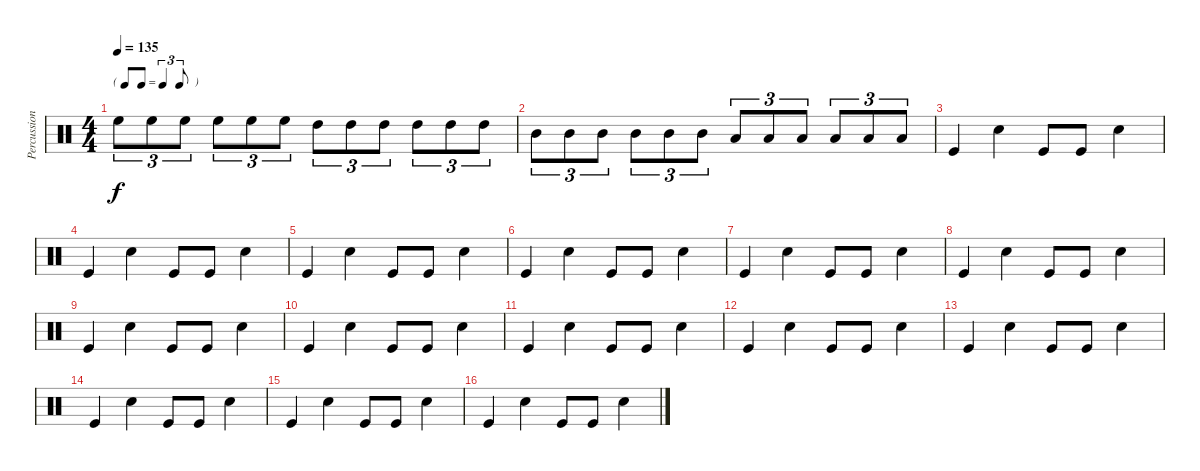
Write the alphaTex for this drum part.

\track ("Percussions" "Percussion") {instrument percussion}
\staff {score}
\articulation defaults
\ts (4 4)
\tf triplet8th
\tempo 135
\clef neutral
\ks c "High Floor Tom (hit)".8{tu (3 2) dy f} "High Floor Tom (hit)".8{tu (3 2)} "High Floor Tom (hit)".8{tu (3 2)} "High Floor Tom (hit)".8{tu (3 2)} "High Floor Tom (hit)".8{tu (3 2)} "High Floor Tom (hit)".8{tu (3 2)} "High Tom (hit)".8{tu (3 2)} "High Tom (hit)".8{tu (3 2)} "High Tom (hit)".8{tu (3 2)} "High Tom (hit)".8{tu (3 2)} "High Tom (hit)".8{tu (3 2)} "High Tom (hit)".8{tu (3 2)}
|
"Mid Tom (hit)".8{tu (3 2)} "Mid Tom (hit)".8{tu (3 2)} "Mid Tom (hit)".8{tu (3 2)} "Mid Tom (hit)".8{tu (3 2)} "Mid Tom (hit)".8{tu (3 2)} "Mid Tom (hit)".8{tu (3 2)} "Low Tom (hit)".8{tu (3 2)} "Low Tom (hit)".8{tu (3 2)} "Low Tom (hit)".8{tu (3 2)} "Low Tom (hit)".8{tu (3 2)} "Low Tom (hit)".8{tu (3 2)} "Low Tom (hit)".8{tu (3 2)} |
"Kick (hit)".4 "Snare (hit) 2".4 "Kick (hit)".8 "Kick (hit)".8 "Snare (hit) 2".4 |
"Kick (hit)".4 "Snare (hit) 2".4 "Kick (hit)".8 "Kick (hit)".8 "Snare (hit) 2".4 |
"Kick (hit)".4 "Snare (hit) 2".4 "Kick (hit)".8 "Kick (hit)".8 "Snare (hit) 2".4 |
"Kick (hit)".4 "Snare (hit) 2".4 "Kick (hit)".8 "Kick (hit)".8 "Snare (hit) 2".4 |
"Kick (hit)".4 "Snare (hit) 2".4 "Kick (hit)".8 "Kick (hit)".8 "Snare (hit) 2".4 |
"Kick (hit)".4 "Snare (hit) 2".4 "Kick (hit)".8 "Kick (hit)".8 "Snare (hit) 2".4 |
"Kick (hit)".4 "Snare (hit) 2".4 "Kick (hit)".8 "Kick (hit)".8 "Snare (hit) 2".4 |
"Kick (hit)".4 "Snare (hit) 2".4 "Kick (hit)".8 "Kick (hit)".8 "Snare (hit) 2".4 |
"Kick (hit)".4 "Snare (hit) 2".4 "Kick (hit)".8 "Kick (hit)".8 "Snare (hit) 2".4 |
"Kick (hit)".4 "Snare (hit) 2".4 "Kick (hit)".8 "Kick (hit)".8 "Snare (hit) 2".4 |
"Kick (hit)".4 "Snare (hit) 2".4 "Kick (hit)".8 "Kick (hit)".8 "Snare (hit) 2".4 |
"Kick (hit)".4 "Snare (hit) 2".4 "Kick (hit)".8 "Kick (hit)".8 "Snare (hit) 2".4 |
"Kick (hit)".4 "Snare (hit) 2".4 "Kick (hit)".8 "Kick (hit)".8 "Snare (hit) 2".4 |
"Kick (hit)".4 "Snare (hit) 2".4 "Kick (hit)".8 "Kick (hit)".8 "Snare (hit) 2".4
